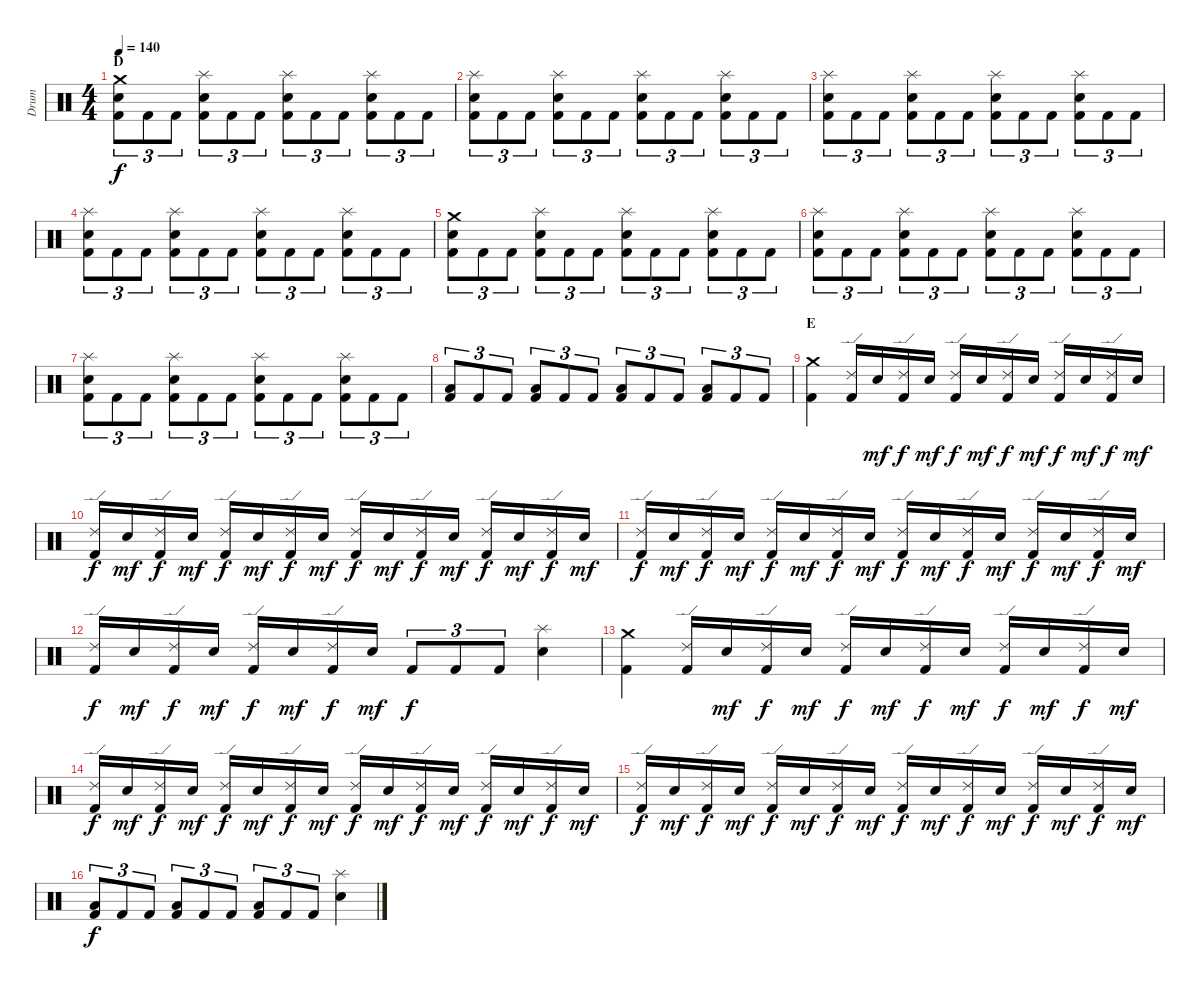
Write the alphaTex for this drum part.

\track ("Drum" "Drum") {instrument percussion}
\staff {score}
\articulation defaults
\ts (4 4)
\section ("" "D")
\tempo 140
\clef neutral
\ks c
("Crash medium (hit)" "Electric Snare (hit)" "Kick (hit) 2").8{tu (3 2) dy f} "Kick (hit) 2".8{tu (3 2)} "Kick (hit) 2".8{tu (3 2)} ("Splash (hit)" "Electric Snare (hit)" "Kick (hit) 2").8{tu (3 2)} "Kick (hit) 2".8{tu (3 2)} "Kick (hit) 2".8{tu (3 2)} ("Splash (hit)" "Electric Snare (hit)" "Kick (hit) 2").8{tu (3 2)} "Kick (hit) 2".8{tu (3 2)} "Kick (hit) 2".8{tu (3 2)} ("Splash (hit)" "Electric Snare (hit)" "Kick (hit) 2").8{tu (3 2)} "Kick (hit) 2".8{tu (3 2)} "Kick (hit) 2".8{tu (3 2)} |
("Splash (hit)" "Electric Snare (hit)" "Kick (hit) 2").8{tu (3 2)} "Kick (hit) 2".8{tu (3 2)} "Kick (hit) 2".8{tu (3 2)} ("Splash (hit)" "Electric Snare (hit)" "Kick (hit) 2").8{tu (3 2)} "Kick (hit) 2".8{tu (3 2)} "Kick (hit) 2".8{tu (3 2)} ("Splash (hit)" "Electric Snare (hit)" "Kick (hit) 2").8{tu (3 2)} "Kick (hit) 2".8{tu (3 2)} "Kick (hit) 2".8{tu (3 2)} ("Splash (hit)" "Electric Snare (hit)" "Kick (hit) 2").8{tu (3 2)} "Kick (hit) 2".8{tu (3 2)} "Kick (hit) 2".8{tu (3 2)} |
("Splash (hit)" "Electric Snare (hit)" "Kick (hit) 2").8{tu (3 2)} "Kick (hit) 2".8{tu (3 2)} "Kick (hit) 2".8{tu (3 2)} ("Splash (hit)" "Electric Snare (hit)" "Kick (hit) 2").8{tu (3 2)} "Kick (hit) 2".8{tu (3 2)} "Kick (hit) 2".8{tu (3 2)} ("Splash (hit)" "Electric Snare (hit)" "Kick (hit) 2").8{tu (3 2)} "Kick (hit) 2".8{tu (3 2)} "Kick (hit) 2".8{tu (3 2)} ("Splash (hit)" "Electric Snare (hit)" "Kick (hit) 2").8{tu (3 2)} "Kick (hit) 2".8{tu (3 2)} "Kick (hit) 2".8{tu (3 2)} |
("Splash (hit)" "Electric Snare (hit)" "Kick (hit) 2").8{tu (3 2)} "Kick (hit) 2".8{tu (3 2)} "Kick (hit) 2".8{tu (3 2)} ("Splash (hit)" "Electric Snare (hit)" "Kick (hit) 2").8{tu (3 2)} "Kick (hit) 2".8{tu (3 2)} "Kick (hit) 2".8{tu (3 2)} ("Splash (hit)" "Electric Snare (hit)" "Kick (hit) 2").8{tu (3 2)} "Kick (hit) 2".8{tu (3 2)} "Kick (hit) 2".8{tu (3 2)} ("Splash (hit)" "Electric Snare (hit)" "Kick (hit) 2").8{tu (3 2)} "Kick (hit) 2".8{tu (3 2)} "Kick (hit) 2".8{tu (3 2)} |
("Crash medium (hit)" "Electric Snare (hit)" "Kick (hit) 2").8{tu (3 2)} "Kick (hit) 2".8{tu (3 2)} "Kick (hit) 2".8{tu (3 2)} ("Splash (hit)" "Electric Snare (hit)" "Kick (hit) 2").8{tu (3 2)} "Kick (hit) 2".8{tu (3 2)} "Kick (hit) 2".8{tu (3 2)} ("Splash (hit)" "Electric Snare (hit)" "Kick (hit) 2").8{tu (3 2)} "Kick (hit) 2".8{tu (3 2)} "Kick (hit) 2".8{tu (3 2)} ("Splash (hit)" "Electric Snare (hit)" "Kick (hit) 2").8{tu (3 2)} "Kick (hit) 2".8{tu (3 2)} "Kick (hit) 2".8{tu (3 2)} |
("Splash (hit)" "Electric Snare (hit)" "Kick (hit) 2").8{tu (3 2)} "Kick (hit) 2".8{tu (3 2)} "Kick (hit) 2".8{tu (3 2)} ("Splash (hit)" "Electric Snare (hit)" "Kick (hit) 2").8{tu (3 2)} "Kick (hit) 2".8{tu (3 2)} "Kick (hit) 2".8{tu (3 2)} ("Splash (hit)" "Electric Snare (hit)" "Kick (hit) 2").8{tu (3 2)} "Kick (hit) 2".8{tu (3 2)} "Kick (hit) 2".8{tu (3 2)} ("Splash (hit)" "Electric Snare (hit)" "Kick (hit) 2").8{tu (3 2)} "Kick (hit) 2".8{tu (3 2)} "Kick (hit) 2".8{tu (3 2)} |
("Splash (hit)" "Electric Snare (hit)" "Kick (hit) 2").8{tu (3 2)} "Kick (hit) 2".8{tu (3 2)} "Kick (hit) 2".8{tu (3 2)} ("Splash (hit)" "Electric Snare (hit)" "Kick (hit) 2").8{tu (3 2)} "Kick (hit) 2".8{tu (3 2)} "Kick (hit) 2".8{tu (3 2)} ("Splash (hit)" "Electric Snare (hit)" "Kick (hit) 2").8{tu (3 2)} "Kick (hit) 2".8{tu (3 2)} "Kick (hit) 2".8{tu (3 2)} ("Splash (hit)" "Electric Snare (hit)" "Kick (hit) 2").8{tu (3 2)} "Kick (hit) 2".8{tu (3 2)} "Kick (hit) 2".8{tu (3 2)} |
("Low Tom (hit)" "Kick (hit) 2").8{tu (3 2)} "Kick (hit) 2".8{tu (3 2)} "Kick (hit) 2".8{tu (3 2)} ("Low Tom (hit)" "Kick (hit) 2").8{tu (3 2)} "Kick (hit) 2".8{tu (3 2)} "Kick (hit) 2".8{tu (3 2)} ("Low Tom (hit)" "Kick (hit) 2").8{tu (3 2)} "Kick (hit) 2".8{tu (3 2)} "Kick (hit) 2".8{tu (3 2)} ("Low Tom (hit)" "Kick (hit) 2").8{tu (3 2)} "Kick (hit) 2".8{tu (3 2)} "Kick (hit) 2".8{tu (3 2)} |
\section ("" "E")
("Crash medium (hit)" "Kick (hit) 2").4 ("Ride (edge) 2" "Kick (hit) 2").16 "Electric Snare (hit)".16{dy mf} ("Ride (edge) 2" "Kick (hit) 2").16{dy f} "Electric Snare (hit)".16{dy mf} ("Ride (edge) 2" "Kick (hit) 2").16{dy f} "Electric Snare (hit)".16{dy mf} ("Ride (edge) 2" "Kick (hit) 2").16{dy f} "Electric Snare (hit)".16{dy mf} ("Ride (edge) 2" "Kick (hit) 2").16{dy f} "Electric Snare (hit)".16{dy mf} ("Ride (edge) 2" "Kick (hit) 2").16{dy f} "Electric Snare (hit)".16{dy mf} |
("Ride (edge) 2" "Kick (hit) 2").16{dy f} "Electric Snare (hit)".16{dy mf} ("Ride (edge) 2" "Kick (hit) 2").16{dy f} "Electric Snare (hit)".16{dy mf} ("Ride (edge) 2" "Kick (hit) 2").16{dy f} "Electric Snare (hit)".16{dy mf} ("Ride (edge) 2" "Kick (hit) 2").16{dy f} "Electric Snare (hit)".16{dy mf} ("Ride (edge) 2" "Kick (hit) 2").16{dy f} "Electric Snare (hit)".16{dy mf} ("Ride (edge) 2" "Kick (hit) 2").16{dy f} "Electric Snare (hit)".16{dy mf} ("Ride (edge) 2" "Kick (hit) 2").16{dy f} "Electric Snare (hit)".16{dy mf} ("Ride (edge) 2" "Kick (hit) 2").16{dy f} "Electric Snare (hit)".16{dy mf} |
("Ride (edge) 2" "Kick (hit) 2").16{dy f} "Electric Snare (hit)".16{dy mf} ("Ride (edge) 2" "Kick (hit) 2").16{dy f} "Electric Snare (hit)".16{dy mf} ("Ride (edge) 2" "Kick (hit) 2").16{dy f} "Electric Snare (hit)".16{dy mf} ("Ride (edge) 2" "Kick (hit) 2").16{dy f} "Electric Snare (hit)".16{dy mf} ("Ride (edge) 2" "Kick (hit) 2").16{dy f} "Electric Snare (hit)".16{dy mf} ("Ride (edge) 2" "Kick (hit) 2").16{dy f} "Electric Snare (hit)".16{dy mf} ("Ride (edge) 2" "Kick (hit) 2").16{dy f} "Electric Snare (hit)".16{dy mf} ("Ride (edge) 2" "Kick (hit) 2").16{dy f} "Electric Snare (hit)".16{dy mf} |
("Ride (edge) 2" "Kick (hit) 2").16{dy f} "Electric Snare (hit)".16{dy mf} ("Ride (edge) 2" "Kick (hit) 2").16{dy f} "Electric Snare (hit)".16{dy mf} ("Ride (edge) 2" "Kick (hit) 2").16{dy f} "Electric Snare (hit)".16{dy mf} ("Ride (edge) 2" "Kick (hit) 2").16{dy f} "Electric Snare (hit)".16{dy mf} "Kick (hit) 2".8{tu (3 2) dy f} "Kick (hit) 2".8{tu (3 2)} "Kick (hit) 2".8{tu (3 2)} ("Splash (hit)" "Electric Snare (hit)").4 |
("Crash medium (hit)" "Kick (hit) 2").4 ("Ride (edge) 2" "Kick (hit) 2").16 "Electric Snare (hit)".16{dy mf} ("Ride (edge) 2" "Kick (hit) 2").16{dy f} "Electric Snare (hit)".16{dy mf} ("Ride (edge) 2" "Kick (hit) 2").16{dy f} "Electric Snare (hit)".16{dy mf} ("Ride (edge) 2" "Kick (hit) 2").16{dy f} "Electric Snare (hit)".16{dy mf} ("Ride (edge) 2" "Kick (hit) 2").16{dy f} "Electric Snare (hit)".16{dy mf} ("Ride (edge) 2" "Kick (hit) 2").16{dy f} "Electric Snare (hit)".16{dy mf} |
("Ride (edge) 2" "Kick (hit) 2").16{dy f} "Electric Snare (hit)".16{dy mf} ("Ride (edge) 2" "Kick (hit) 2").16{dy f} "Electric Snare (hit)".16{dy mf} ("Ride (edge) 2" "Kick (hit) 2").16{dy f} "Electric Snare (hit)".16{dy mf} ("Ride (edge) 2" "Kick (hit) 2").16{dy f} "Electric Snare (hit)".16{dy mf} ("Ride (edge) 2" "Kick (hit) 2").16{dy f} "Electric Snare (hit)".16{dy mf} ("Ride (edge) 2" "Kick (hit) 2").16{dy f} "Electric Snare (hit)".16{dy mf} ("Ride (edge) 2" "Kick (hit) 2").16{dy f} "Electric Snare (hit)".16{dy mf} ("Ride (edge) 2" "Kick (hit) 2").16{dy f} "Electric Snare (hit)".16{dy mf} |
("Ride (edge) 2" "Kick (hit) 2").16{dy f} "Electric Snare (hit)".16{dy mf} ("Ride (edge) 2" "Kick (hit) 2").16{dy f} "Electric Snare (hit)".16{dy mf} ("Ride (edge) 2" "Kick (hit) 2").16{dy f} "Electric Snare (hit)".16{dy mf} ("Ride (edge) 2" "Kick (hit) 2").16{dy f} "Electric Snare (hit)".16{dy mf} ("Ride (edge) 2" "Kick (hit) 2").16{dy f} "Electric Snare (hit)".16{dy mf} ("Ride (edge) 2" "Kick (hit) 2").16{dy f} "Electric Snare (hit)".16{dy mf} ("Ride (edge) 2" "Kick (hit) 2").16{dy f} "Electric Snare (hit)".16{dy mf} ("Ride (edge) 2" "Kick (hit) 2").16{dy f} "Electric Snare (hit)".16{dy mf} |
("Low Tom (hit)" "Kick (hit) 2").8{tu (3 2) dy f} "Kick (hit) 2".8{tu (3 2)} "Kick (hit) 2".8{tu (3 2)} ("Low Tom (hit)" "Kick (hit) 2").8{tu (3 2)} "Kick (hit) 2".8{tu (3 2)} "Kick (hit) 2".8{tu (3 2)} ("Low Tom (hit)" "Kick (hit) 2").8{tu (3 2)} "Kick (hit) 2".8{tu (3 2)} "Kick (hit) 2".8{tu (3 2)} ("Splash (hit)" "Electric Snare (hit)").4
